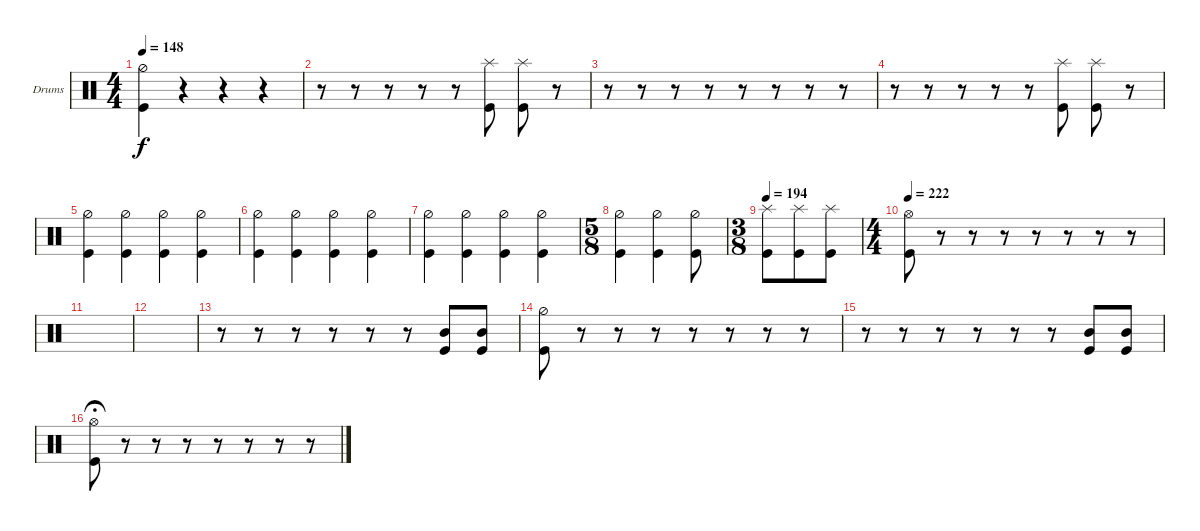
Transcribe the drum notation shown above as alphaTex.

\bracketExtendMode groupsimilarinstruments
\firstSystemTrackNameOrientation horizontal
\otherSystemsTrackNameOrientation horizontal
\track ("Drumkit" "Drums") {instrument percussion}
\staff {score}
\articulation defaults
\ts (4 4)
\tempo 148
\clef neutral
\scale
0.333333
\ks c
("Kick (hit)" "Hi-Hat (half)").4{dy f} r.4 r.4 r.4 |
\scale
0.333333 r.8 r.8 r.8 r.8 r.8 ("Kick (hit)" "Splash (hit)").8 ("Kick (hit)" "Splash (hit)").8 r.8 |
\scale
0.333333 r.8 r.8 r.8 r.8 r.8 r.8 r.8 r.8 |
\scale
0.333333 r.8 r.8 r.8 r.8 r.8 ("Kick (hit)" "Splash (hit)").8 ("Kick (hit)" "Splash (hit)").8 r.8 |
\scale
0.333333 ("Kick (hit)" "Hi-Hat (half)").4 ("Kick (hit)" "Hi-Hat (half)").4 ("Kick (hit)" "Hi-Hat (half)").4 ("Kick (hit)" "Hi-Hat (half)").4 |
\scale
0.333333 ("Kick (hit)" "Hi-Hat (half)").4 ("Kick (hit)" "Hi-Hat (half)").4 ("Kick (hit)" "Hi-Hat (half)").4 ("Kick (hit)" "Hi-Hat (half)").4 |
\scale
0.333333 ("Kick (hit)" "Hi-Hat (half)").4 ("Kick (hit)" "Hi-Hat (half)").4 ("Kick (hit)" "Hi-Hat (half)").4 ("Kick (hit)" "Hi-Hat (half)").4 |
\ts (5 8)
\scale
0.333333 ("Kick (hit)" "Hi-Hat (half)").4 ("Kick (hit)" "Hi-Hat (half)").4 ("Kick (hit)" "Hi-Hat (half)").8 |
\ts (3 8)
\tempo 194
("Kick (hit)" "Splash (hit)").8 ("Kick (hit)" "Splash (hit)").8 ("Kick (hit)" "Splash (hit)").8 |
\ts (4 4)
\tempo 222
("Kick (hit)" "Hi-Hat (open)").8 r.8 r.8 r.8 r.8 r.8 r.8 r.8 |
|
|
r.8 r.8 r.8 r.8 r.8 r.8 ("Kick (hit)" "Mid Tom (hit)").8 ("Kick (hit)" "Mid Tom (hit)").8 |
("Kick (hit)" "Hi-Hat (half)").8 r.8 r.8 r.8 r.8 r.8 r.8 r.8 |
r.8 r.8 r.8 r.8 r.8 r.8 ("Kick (hit)" "Mid Tom (hit)").8 ("Kick (hit)" "Mid Tom (hit)").8 |
("Kick (hit)" "Hi-Hat (open)").8{fermata (medium 0.5)} r.8 r.8 r.8 r.8 r.8 r.8 r.8
